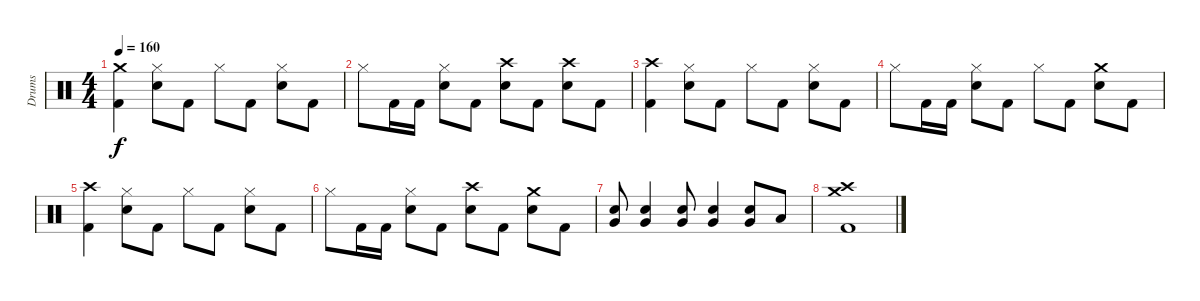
\track ("Drums" "Drums") {instrument percussion}
\staff {score}
\articulation defaults
\ts (4 4)
\tempo 160
\clef neutral
\ks c
("Crash medium (hit)" "Kick (hit) 2").4{dy f} ("Hi-Hat (closed)" "Snare (hit) 2").8 "Kick (hit) 2".8 "Hi-Hat (closed)".8 "Kick (hit) 2".8 ("Hi-Hat (closed)" "Snare (hit) 2").8 "Kick (hit) 2".8 |
"Hi-Hat (closed)".8 "Kick (hit) 2".16 "Kick (hit) 2".16 ("Hi-Hat (closed)" "Snare (hit) 2").8 "Kick (hit) 2".8 ("Crash high (hit)" "Snare (hit) 2").8 "Kick (hit) 2".8 ("Crash high (hit)" "Snare (hit) 2").8 "Kick (hit) 2".8 |
("Crash high (hit)" "Kick (hit) 2").4 ("Hi-Hat (closed)" "Snare (hit) 2").8 "Kick (hit) 2".8 "Hi-Hat (closed)".8 "Kick (hit) 2".8 ("Hi-Hat (closed)" "Snare (hit) 2").8 "Kick (hit) 2".8 |
"Hi-Hat (closed)".8 "Kick (hit) 2".16 "Kick (hit) 2".16 ("Hi-Hat (closed)" "Snare (hit) 2").8 "Kick (hit) 2".8 "Hi-Hat (closed)".8 "Kick (hit) 2".8 ("Crash medium (hit)" "Snare (hit) 2").8 "Kick (hit) 2".8 |
("Crash high (hit)" "Kick (hit) 2").4 ("Hi-Hat (closed)" "Snare (hit) 2").8 "Kick (hit) 2".8 "Hi-Hat (closed)".8 "Kick (hit) 2".8 ("Hi-Hat (closed)" "Snare (hit) 2").8 "Kick (hit) 2".8 |
"Hi-Hat (closed)".8 "Kick (hit) 2".16 "Kick (hit) 2".16 ("Hi-Hat (closed)" "Snare (hit) 2").8 "Kick (hit) 2".8 ("Crash high (hit)" "Snare (hit) 2").8 "Kick (hit) 2".8 ("Crash medium (hit)" "Snare (hit) 2").8 "Kick (hit) 2".8 |
("Very Low Tom (hit)" "Snare (hit) 2").8 ("Very Low Tom (hit)" "Snare (hit) 2").4 ("Very Low Tom (hit)" "Snare (hit) 2").8 ("Very Low Tom (hit)" "Snare (hit) 2").4 ("Very Low Tom (hit)" "Snare (hit) 2").8 "Low Floor Tom (hit)".8 |
("Crash medium (hit)" "Crash high (hit)" "Kick (hit) 2").1
